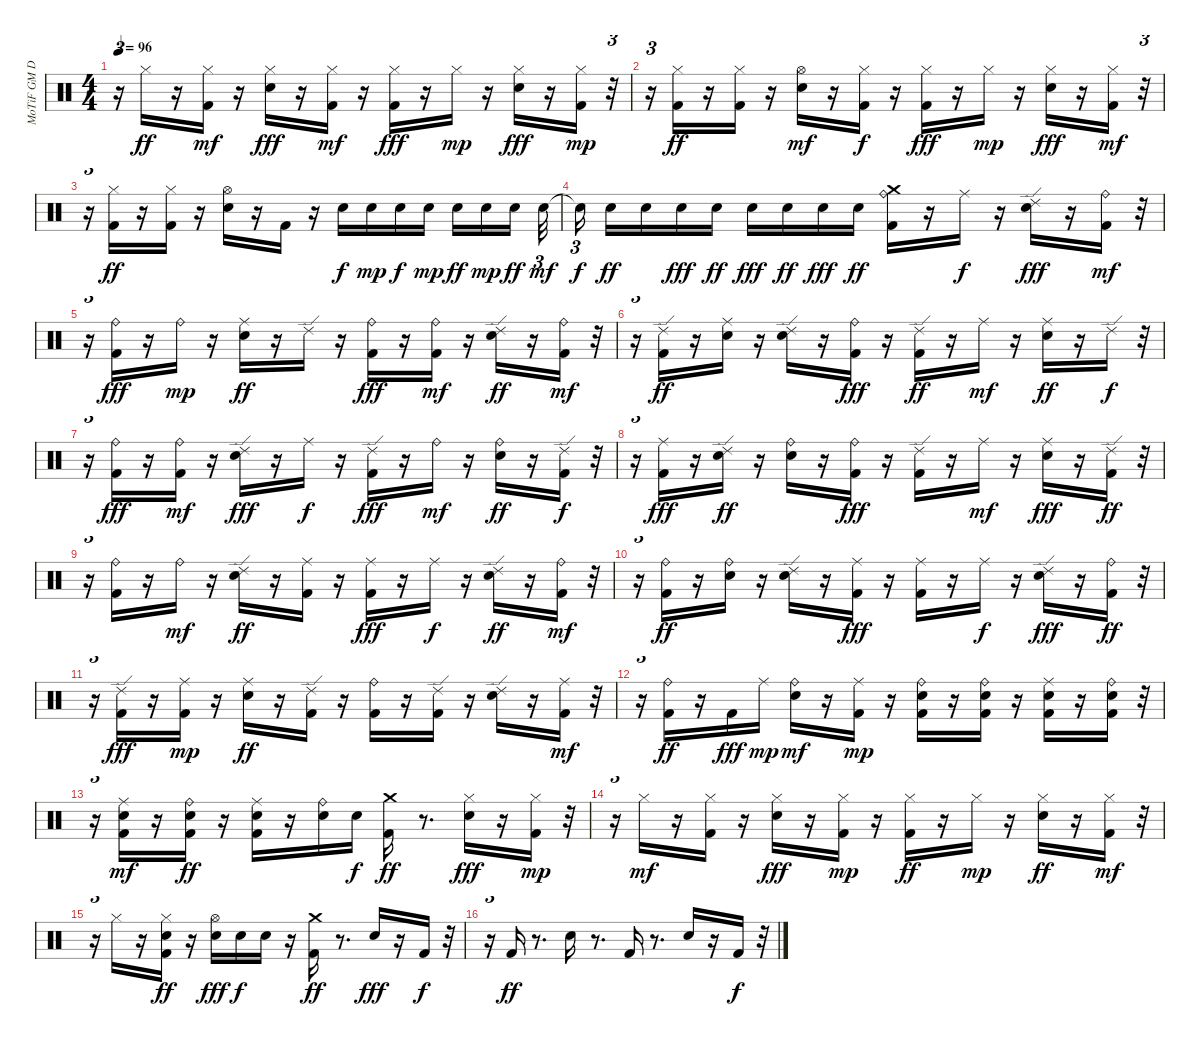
\track ("MoTiF GM Drums" "MoTiF GM D") {instrument percussion}
\staff {score}
\articulation defaults
\ts (4 4)
\tempo 96
\clef neutral
\ks c
r.16{tu (3 2) dy mp} "Hi-Hat (closed)".16{dy ff} r.16 ("Kick (hit) 2" "Hi-Hat (closed)").16{dy mf} r.16 ("Electric Snare (hit)" "Hi-Hat (closed)").16{dy fff} r.16 ("Kick (hit) 2" "Hi-Hat (closed)").16{dy mf} r.16 ("Kick (hit) 2" "Hi-Hat (closed)").16{dy fff} r.16 "Hi-Hat (closed)".16{dy mp} r.16 ("Electric Snare (hit)" "Hi-Hat (closed)").16{dy fff} r.16 ("Kick (hit) 2" "Hi-Hat (closed)").16{dy mp} r.32{tu (3 2)} |
r.16{tu (3 2)} ("Kick (hit) 2" "Hi-Hat (closed)").16{dy ff} r.16 ("Kick (hit) 2" "Hi-Hat (closed)").16 r.16 ("Electric Snare (hit)" "Hi-Hat (open)").16{dy mf} r.16 ("Kick (hit) 2" "Hi-Hat (closed)").16{dy f} r.16 ("Kick (hit) 2" "Hi-Hat (closed)").16{dy fff} r.16 "Hi-Hat (closed)".16{dy mp} r.16 ("Electric Snare (hit)" "Hi-Hat (closed)").16{dy fff} r.16 ("Kick (hit) 2" "Hi-Hat (closed)").16{dy mf} r.32{tu (3 2)} |
r.16{tu (3 2)} ("Kick (hit) 2" "Hi-Hat (closed)").16{dy ff} r.16 ("Kick (hit) 2" "Hi-Hat (closed)").16 r.16 ("Electric Snare (hit)" "Hi-Hat (open)").16 r.16 "Kick (hit) 2".16 r.16 "Electric Snare (hit)".16{dy f} "Electric Snare (hit)".16{dy mp} "Electric Snare (hit)".16{dy f} "Electric Snare (hit)".16{dy mp} "Electric Snare (hit)".16{dy ff} "Electric Snare (hit)".16{dy mp} "Electric Snare (hit)".16{dy ff} "Electric Snare (hit)".32{tu (3 2) dy mf} |
"Snare (hit)"{t}.16{tu (3 2) dy f} "Electric Snare (hit)".16{dy ff} "Electric Snare (hit)".16 "Electric Snare (hit)".16{dy fff} "Electric Snare (hit)".16{dy ff} "Electric Snare (hit)".16{dy fff} "Electric Snare (hit)".16{dy ff} "Electric Snare (hit)".16{dy fff} "Electric Snare (hit)".16{dy ff} ("Kick (hit) 2" "Ride (bell)" "Crash medium (hit)").16 r.16 "Ride (middle)".16{dy f} r.16 ("Electric Snare (hit)" "Ride (edge) 2").16{dy fff} r.16 ("Kick (hit) 2" "Ride (bell)").16{dy mf} r.32{tu (3 2)} |
r.16{tu (3 2)} ("Kick (hit) 2" "Ride (bell)").16{dy fff} r.16 "Ride (bell)".16{dy mp} r.16 ("Electric Snare (hit)" "Ride (middle)").16{dy ff} r.16 "Ride (edge) 2".16 r.16 ("Kick (hit) 2" "Ride (bell)").16{dy fff} r.16 ("Kick (hit) 2" "Ride (bell)").16{dy mf} r.16 ("Electric Snare (hit)" "Ride (edge) 2").16{dy ff} r.16 ("Kick (hit) 2" "Ride (bell)").16{dy mf} r.32{tu (3 2)} |
r.16{tu (3 2)} ("Kick (hit) 2" "Ride (edge) 2").16{dy ff} r.16 ("Electric Snare (hit)" "Ride (middle)").16 r.16 ("Electric Snare (hit)" "Ride (edge) 2").16 r.16 ("Kick (hit) 2" "Ride (bell)").16{dy fff} r.16 ("Kick (hit) 2" "Ride (edge) 2").16{dy ff} r.16 "Ride (middle)".16{dy mf} r.16 ("Electric Snare (hit)" "Ride (middle)").16{dy ff} r.16 "Ride (edge) 2".16{dy f} r.32{tu (3 2)} |
r.16{tu (3 2)} ("Kick (hit) 2" "Ride (bell)").16{dy fff} r.16 ("Kick (hit) 2" "Ride (bell)").16{dy mf} r.16 ("Electric Snare (hit)" "Ride (edge) 2").16{dy fff} r.16 "Ride (middle)".16{dy f} r.16 ("Kick (hit) 2" "Ride (edge) 2").16{dy fff} r.16 "Ride (bell)".16{dy mf} r.16 ("Electric Snare (hit)" "Ride (bell)").16{dy ff} r.16 ("Kick (hit) 2" "Ride (edge) 2").16{dy f} r.32{tu (3 2)} |
r.16{tu (3 2)} ("Kick (hit) 2" "Ride (middle)").16{dy fff} r.16 ("Electric Snare (hit)" "Ride (edge) 2").16{dy ff} r.16 ("Electric Snare (hit)" "Ride (bell)").16 r.16 ("Kick (hit) 2" "Ride (bell)").16{dy fff} r.16 ("Kick (hit) 2" "Ride (edge) 2").16 r.16 "Ride (middle)".16{dy mf} r.16 ("Electric Snare (hit)" "Ride (middle)").16{dy fff} r.16 ("Kick (hit) 2" "Ride (edge) 2").16{dy ff} r.32{tu (3 2)} |
r.16{tu (3 2)} ("Kick (hit) 2" "Ride (bell)").16 r.16 "Ride (bell)".16{dy mf} r.16 ("Electric Snare (hit)" "Ride (edge) 2").16{dy ff} r.16 ("Kick (hit) 2" "Ride (middle)").16 r.16 ("Kick (hit) 2" "Ride (middle)").16{dy fff} r.16 "Ride (middle)".16{dy f} r.16 ("Electric Snare (hit)" "Ride (edge) 2").16{dy ff} r.16 ("Kick (hit) 2" "Ride (bell)").16{dy mf} r.32{tu (3 2)} |
r.16{tu (3 2)} ("Kick (hit) 2" "Ride (bell)").16{dy ff} r.16 ("Electric Snare (hit)" "Ride (bell)").16 r.16 ("Electric Snare (hit)" "Ride (edge) 2").16 r.16 ("Kick (hit) 2" "Ride (middle)").16{dy fff} r.16 ("Kick (hit) 2" "Ride (middle)").16 r.16 "Ride (middle)".16{dy f} r.16 ("Electric Snare (hit)" "Ride (edge) 2").16{dy fff} r.16 ("Kick (hit) 2" "Ride (bell)").16{dy ff} r.32{tu (3 2)} |
r.16{tu (3 2)} ("Kick (hit) 2" "Ride (edge) 2").16{dy fff} r.16 ("Kick (hit) 2" "Ride (middle)").16{dy mp} r.16 ("Electric Snare (hit)" "Ride (middle)").16{dy ff} r.16 ("Kick (hit) 2" "Ride (edge) 2").16 r.16 ("Kick (hit) 2" "Ride (bell)").16 r.16 ("Kick (hit) 2" "Ride (edge) 2").16 r.16 ("Electric Snare (hit)" "Ride (edge) 2").16 r.16 ("Kick (hit) 2" "Ride (middle)").16{dy mf} r.32{tu (3 2)} |
r.16{tu (3 2)} ("Kick (hit) 2" "Ride (bell)").16{dy ff} r.16 "Kick (hit) 2".16{dy fff} "Ride (middle)".16{dy mp} ("Electric Snare (hit)" "Ride (bell)").16{dy mf} r.16 ("Kick (hit) 2" "Ride (middle)").16{dy mp} r.16 ("Kick (hit) 2" "Electric Snare (hit)" "Ride (bell)").16 r.16 ("Kick (hit) 2" "Electric Snare (hit)" "Ride (bell)").16 r.16 ("Kick (hit) 2" "Electric Snare (hit)" "Ride (middle)").16 r.16 ("Kick (hit) 2" "Electric Snare (hit)" "Ride (bell)").16 r.32{tu (3 2)} |
r.16{tu (3 2)} ("Kick (hit) 2" "Electric Snare (hit)" "Ride (middle)").16{dy mf} r.16 ("Kick (hit) 2" "Electric Snare (hit)" "Ride (bell)").16{dy ff} r.16 ("Kick (hit) 2" "Electric Snare (hit)" "Ride (middle)").16 r.16 ("Electric Snare (hit)" "Ride (bell)").16 "Electric Snare (hit)".16{dy f} ("Kick (hit) 2" "Crash medium (hit)").16{dy ff} r.8{d} ("Electric Snare (hit)" "Hi-Hat (closed)").16{dy fff} r.16 ("Kick (hit) 2" "Hi-Hat (closed)").16{dy mp} r.32{tu (3 2)} |
r.16{tu (3 2)} "Hi-Hat (closed)".16{dy mf} r.16 ("Kick (hit) 2" "Hi-Hat (closed)").16 r.16 ("Electric Snare (hit)" "Hi-Hat (closed)").16{dy fff} r.16 ("Kick (hit) 2" "Hi-Hat (closed)").16{dy mp} r.16 ("Kick (hit) 2" "Hi-Hat (closed)").16{dy ff} r.16 "Hi-Hat (closed)".16{dy mp} r.16 ("Electric Snare (hit)" "Hi-Hat (closed)").16{dy ff} r.16 ("Kick (hit) 2" "Hi-Hat (closed)").16{dy mf} r.32{tu (3 2)} |
r.16{tu (3 2)} "Hi-Hat (closed)".16 r.16 ("Kick (hit) 2" "Electric Snare (hit)" "Hi-Hat (closed)").16{dy ff} r.16 ("Electric Snare (hit)" "Hi-Hat (open)").16{dy fff} "Electric Snare (hit)".16{dy f} "Electric Snare (hit)".16 r.16 ("Kick (hit) 2" "Crash medium (hit)").16{dy ff} r.8{d} "Electric Snare (hit)".16{dy fff} r.16 "Kick (hit) 2".16{dy f} r.32{tu (3 2)} |
r.16{tu (3 2)} "Kick (hit) 2".16{dy ff} r.8{d} "Electric Snare (hit)".16 r.8{d} "Kick (hit) 2".16 r.8{d} "Electric Snare (hit)".16 r.16 "Kick (hit) 2".16{dy f} r.32{tu (3 2)}
